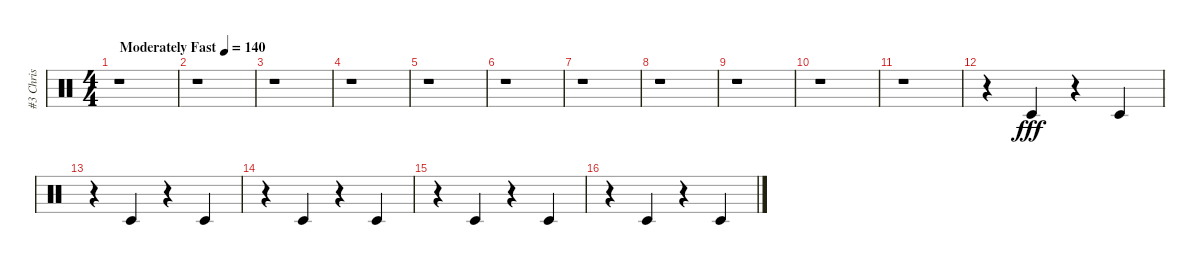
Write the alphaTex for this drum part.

\track ("#3 Chris" "#3 Chris") {solo instrument percussion}
\staff {score}
\articulation defaults
\ts (4 4)
\tempo (140 "Moderately Fast")
\clef neutral
\ks c
r.1{dy fff} |
r.1 |
r.1 |
r.1 |
r.1 |
r.1 |
r.1 |
r.1 |
r.1 |
r.1 |
r.1 |
r.4 "Timbale low (hit)".4 r.4 "Timbale low (hit)".4 |
r.4 "Timbale low (hit)".4 r.4 "Timbale low (hit)".4 |
r.4 "Timbale low (hit)".4 r.4 "Timbale low (hit)".4 |
r.4 "Timbale low (hit)".4 r.4 "Timbale low (hit)".4 |
r.4 "Timbale low (hit)".4 r.4 "Timbale low (hit)".4
